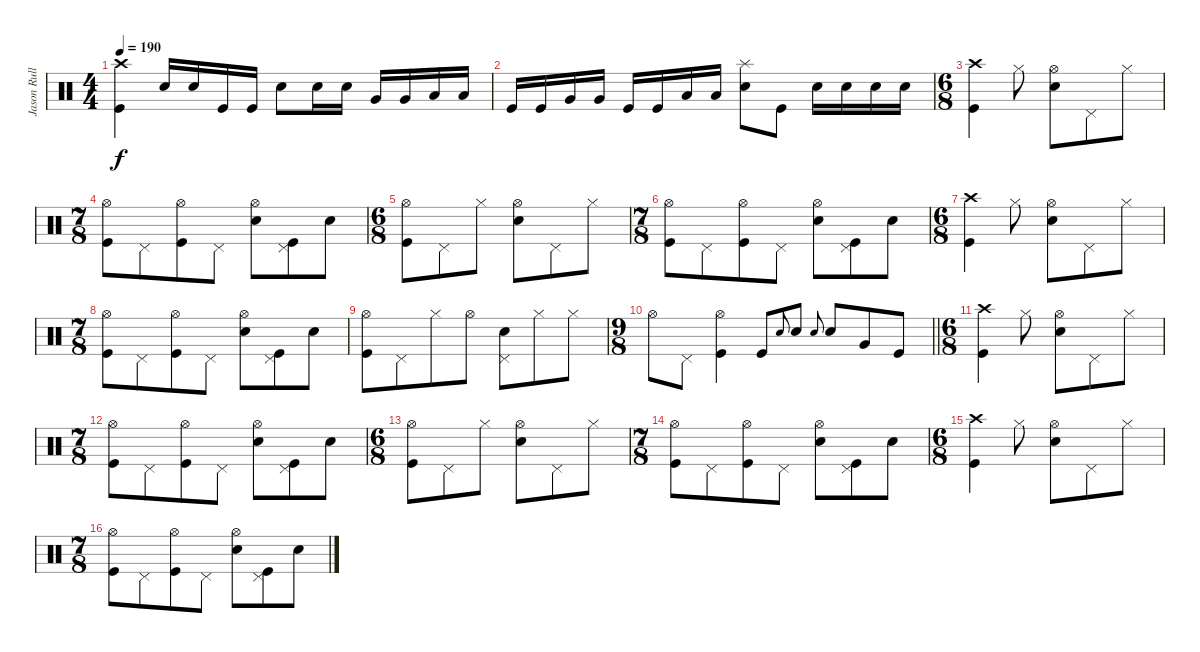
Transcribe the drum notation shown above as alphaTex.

\track ("Jason Rullo - Drums and Percussion" "Jason Rull") {instrument percussion}
\staff {score}
\articulation defaults
\ts (4 4)
\tempo 190
\clef neutral
\ks c
("Kick (hit)" "Crash high (hit)").4{dy f} "Snare (hit) 2".16 "Snare (hit) 2".16 "Kick (hit)".16 "Kick (hit)".16 "Snare (hit) 2".8 "Snare (hit) 2".16 "Snare (hit) 2".16 "Very Low Tom (hit)".16 "Very Low Tom (hit)".16 "Low Floor Tom (hit)".16 "Low Floor Tom (hit)".16 |
"Kick (hit)".16 "Kick (hit)".16 "Very Low Tom (hit)".16 "Very Low Tom (hit)".16 "Kick (hit)".16 "Kick (hit)".16 "Low Floor Tom (hit)".16 "Low Floor Tom (hit)".16 ("Snare (hit) 2" "Splash (hit)").8 "Kick (hit)".8 "Snare (hit) 2".16 "Snare (hit) 2".16 "Snare (hit) 2".16 "Snare (hit) 2".16 |
\ts (6 8)
("Kick (hit)" "Crash high (hit)").4 "Hi-Hat (closed)".8 ("Snare (hit) 2" "Hi-Hat (open)").8 "Pedal Hi-Hat (hit)".8 "Hi-Hat (closed)".8 |
\ts (7 8)
("Hi-Hat (open)" "Kick (hit)").8 "Pedal Hi-Hat (hit)".8 ("Hi-Hat (open)" "Kick (hit)").8 "Pedal Hi-Hat (hit)".8 ("Snare (hit) 2" "Hi-Hat (open)").8 ("Pedal Hi-Hat (hit)" "Kick (hit)").8 "Snare (hit) 2".8 |
\ts (6 8)
("Kick (hit)" "Hi-Hat (open)").8 "Pedal Hi-Hat (hit)".8 "Hi-Hat (closed)".8 ("Snare (hit) 2" "Hi-Hat (open)").8 "Pedal Hi-Hat (hit)".8 "Hi-Hat (closed)".8 |
\ts (7 8)
("Hi-Hat (open)" "Kick (hit)").8 "Pedal Hi-Hat (hit)".8 ("Hi-Hat (open)" "Kick (hit)").8 "Pedal Hi-Hat (hit)".8 ("Snare (hit) 2" "Hi-Hat (open)").8 ("Pedal Hi-Hat (hit)" "Kick (hit)").8 "Snare (hit) 2".8 |
\ts (6 8)
("Kick (hit)" "Crash high (hit)").4 "Hi-Hat (closed)".8 ("Snare (hit) 2" "Hi-Hat (open)").8 "Pedal Hi-Hat (hit)".8 "Hi-Hat (closed)".8 |
\ts (7 8)
("Hi-Hat (open)" "Kick (hit)").8 "Pedal Hi-Hat (hit)".8 ("Hi-Hat (open)" "Kick (hit)").8 "Pedal Hi-Hat (hit)".8 ("Snare (hit) 2" "Hi-Hat (open)").8 ("Pedal Hi-Hat (hit)" "Kick (hit)").8 "Snare (hit) 2".8 |
("Hi-Hat (open)" "Kick (hit)").8 "Pedal Hi-Hat (hit)".8 "Hi-Hat (closed)".8 "Hi-Hat (open)".8 ("Pedal Hi-Hat (hit)" "Snare (hit) 2").8 "Hi-Hat (closed)".8 "Hi-Hat (closed)".8 |
\ts (9 8)
\barLineRight lightlight "Hi-Hat (open)".8 "Pedal Hi-Hat (hit)".8
("Kick (hit)" "Hi-Hat (open)").4 "Kick (hit)".8 "Snare (hit) 2".8{gr onbeat} "Snare (hit) 2".8 "Snare (hit) 2".8{gr onbeat} "Snare (hit) 2".8 "Very Low Tom (hit)".8 "Kick (hit)".8 |
\ts (6 8)
("Kick (hit)" "Crash high (hit)").4 "Hi-Hat (closed)".8 ("Snare (hit) 2" "Hi-Hat (open)").8 "Pedal Hi-Hat (hit)".8 "Hi-Hat (closed)".8 |
\ts (7 8)
("Hi-Hat (open)" "Kick (hit)").8 "Pedal Hi-Hat (hit)".8 ("Hi-Hat (open)" "Kick (hit)").8 "Pedal Hi-Hat (hit)".8 ("Snare (hit) 2" "Hi-Hat (open)").8 ("Pedal Hi-Hat (hit)" "Kick (hit)").8 "Snare (hit) 2".8 |
\ts (6 8)
("Kick (hit)" "Hi-Hat (open)").8 "Pedal Hi-Hat (hit)".8 "Hi-Hat (closed)".8 ("Snare (hit) 2" "Hi-Hat (open)").8 "Pedal Hi-Hat (hit)".8 "Hi-Hat (closed)".8 |
\ts (7 8)
("Hi-Hat (open)" "Kick (hit)").8 "Pedal Hi-Hat (hit)".8 ("Hi-Hat (open)" "Kick (hit)").8 "Pedal Hi-Hat (hit)".8 ("Snare (hit) 2" "Hi-Hat (open)").8 ("Pedal Hi-Hat (hit)" "Kick (hit)").8 "Snare (hit) 2".8 |
\ts (6 8)
("Kick (hit)" "Crash high (hit)").4 "Hi-Hat (closed)".8 ("Snare (hit) 2" "Hi-Hat (open)").8 "Pedal Hi-Hat (hit)".8 "Hi-Hat (closed)".8 |
\ts (7 8)
("Hi-Hat (open)" "Kick (hit)").8 "Pedal Hi-Hat (hit)".8 ("Hi-Hat (open)" "Kick (hit)").8 "Pedal Hi-Hat (hit)".8 ("Snare (hit) 2" "Hi-Hat (open)").8 ("Pedal Hi-Hat (hit)" "Kick (hit)").8 "Snare (hit) 2".8
